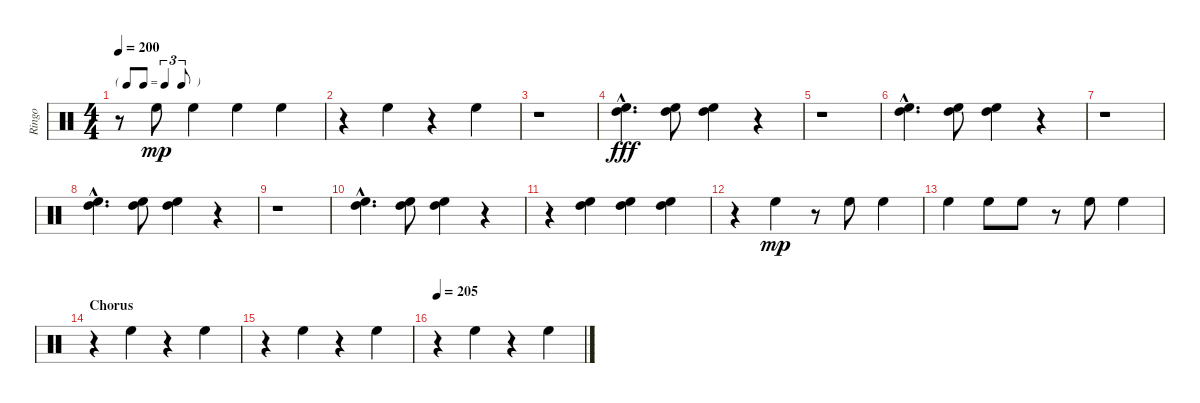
\track ("Ringo" "Ringo") {instrument percussion}
\staff {score}
\articulation defaults
\ts (4 4)
\tf triplet8th
\tempo 200
\clef neutral
\ks c
r.8{dy mp} "High Floor Tom (hit)".8 "High Floor Tom (hit)".4 "High Floor Tom (hit)".4 "High Floor Tom (hit)".4 |
r.4 "High Floor Tom (hit)".4 r.4 "High Floor Tom (hit)".4 |
r.1 |
("High Floor Tom (hit)"{hac} "High Tom (hit)"{hac}).4{d dy fff} ("High Floor Tom (hit)" "High Tom (hit)").8 ("High Floor Tom (hit)" "High Tom (hit)").4 r.4 |
r.1 |
("High Floor Tom (hit)"{hac} "High Tom (hit)"{hac}).4{d} ("High Floor Tom (hit)" "High Tom (hit)").8 ("High Floor Tom (hit)" "High Tom (hit)").4 r.4 |
r.1 |
("High Floor Tom (hit)"{hac} "High Tom (hit)"{hac}).4{d} ("High Floor Tom (hit)" "High Tom (hit)").8 ("High Floor Tom (hit)" "High Tom (hit)").4 r.4 |
r.1 |
("High Floor Tom (hit)"{hac} "High Tom (hit)"{hac}).4{d} ("High Floor Tom (hit)" "High Tom (hit)").8 ("High Floor Tom (hit)" "High Tom (hit)").4 r.4 |
r.4 ("High Floor Tom (hit)" "High Tom (hit)").4 ("High Floor Tom (hit)" "High Tom (hit)").4 ("High Floor Tom (hit)" "High Tom (hit)").4 |
r.4 "High Floor Tom (hit)".4{dy mp} r.8 "High Floor Tom (hit)".8 "High Floor Tom (hit)".4 |
"High Floor Tom (hit)".4 "High Floor Tom (hit)".8 "High Floor Tom (hit)".8 r.8 "High Floor Tom (hit)".8 "High Floor Tom (hit)".4 |
\section ("" "Chorus")
r.4 "High Floor Tom (hit)".4 r.4 "High Floor Tom (hit)".4 |
r.4 "High Floor Tom (hit)".4 r.4 "High Floor Tom (hit)".4 |
\tempo 205
r.4 "High Floor Tom (hit)".4 r.4 "High Floor Tom (hit)".4
